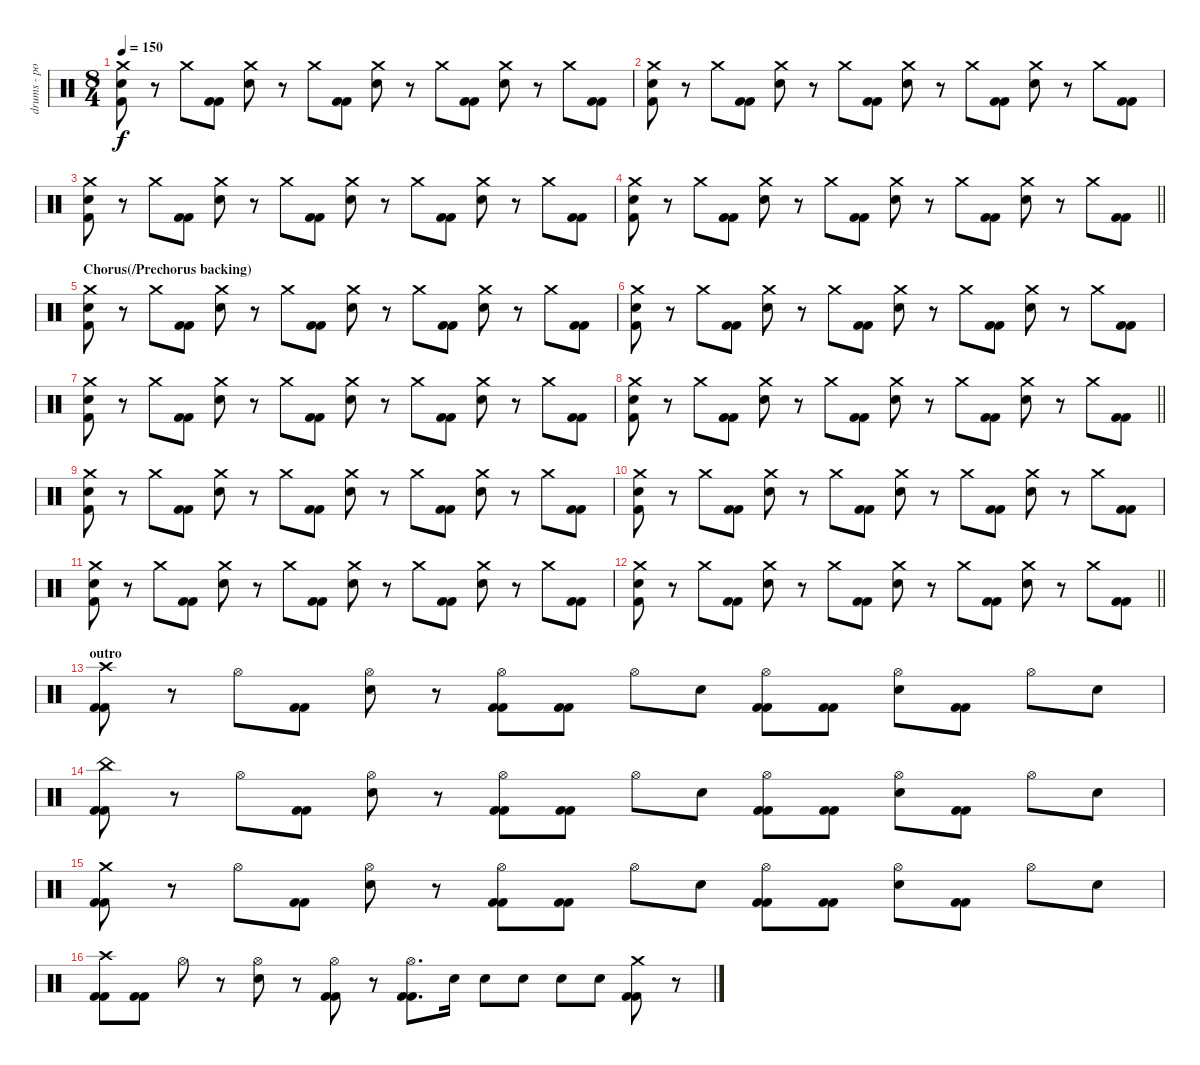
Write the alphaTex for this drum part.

\track ("drums - portnoy" "drums - po") {instrument percussion}
\staff {score}
\articulation defaults
\ts (8 4)
\tempo 150
\clef neutral
\ks c
("Crash medium (hit)" "Electric Snare (hit)" "Kick (hit) 2").8{dy f} r.8 "Crash medium (hit)".8 ("Kick (hit) 2" "Kick (hit) 2").8 ("Crash medium (hit)" "Electric Snare (hit)").8 r.8 "Crash medium (hit)".8 ("Kick (hit) 2" "Kick (hit) 2").8 ("Crash medium (hit)" "Electric Snare (hit)").8 r.8 "Crash medium (hit)".8 ("Kick (hit) 2" "Kick (hit) 2").8 ("Crash medium (hit)" "Electric Snare (hit)").8 r.8 "Crash medium (hit)".8 ("Kick (hit) 2" "Kick (hit) 2").8 |
("Crash medium (hit)" "Electric Snare (hit)" "Kick (hit) 2").8 r.8 "Crash medium (hit)".8 ("Kick (hit) 2" "Kick (hit) 2").8 ("Crash medium (hit)" "Electric Snare (hit)").8 r.8 "Crash medium (hit)".8 ("Kick (hit) 2" "Kick (hit) 2").8 ("Crash medium (hit)" "Electric Snare (hit)").8 r.8 "Crash medium (hit)".8 ("Kick (hit) 2" "Kick (hit) 2").8 ("Crash medium (hit)" "Electric Snare (hit)").8 r.8 "Crash medium (hit)".8 ("Kick (hit) 2" "Kick (hit) 2").8 |
("Crash medium (hit)" "Electric Snare (hit)" "Kick (hit) 2").8 r.8 "Crash medium (hit)".8 ("Kick (hit) 2" "Kick (hit) 2").8 ("Crash medium (hit)" "Electric Snare (hit)").8 r.8 "Crash medium (hit)".8 ("Kick (hit) 2" "Kick (hit) 2").8 ("Crash medium (hit)" "Electric Snare (hit)").8 r.8 "Crash medium (hit)".8 ("Kick (hit) 2" "Kick (hit) 2").8 ("Crash medium (hit)" "Electric Snare (hit)").8 r.8 "Crash medium (hit)".8 ("Kick (hit) 2" "Kick (hit) 2").8 |
\barLineRight lightlight
("Crash medium (hit)" "Electric Snare (hit)" "Kick (hit) 2").8 r.8 "Crash medium (hit)".8 ("Kick (hit) 2" "Kick (hit) 2").8 ("Crash medium (hit)" "Electric Snare (hit)").8 r.8 "Crash medium (hit)".8 ("Kick (hit) 2" "Kick (hit) 2").8 ("Crash medium (hit)" "Electric Snare (hit)").8 r.8 "Crash medium (hit)".8 ("Kick (hit) 2" "Kick (hit) 2").8 ("Crash medium (hit)" "Electric Snare (hit)").8 r.8 "Crash medium (hit)".8 ("Kick (hit) 2" "Kick (hit) 2").8 |
\section ("" "Chorus(/Prechorus backing)")
("Crash medium (hit)" "Electric Snare (hit)" "Kick (hit) 2").8 r.8 "Crash medium (hit)".8 ("Kick (hit) 2" "Kick (hit) 2").8 ("Crash medium (hit)" "Electric Snare (hit)").8 r.8 "Crash medium (hit)".8 ("Kick (hit) 2" "Kick (hit) 2").8 ("Crash medium (hit)" "Electric Snare (hit)").8 r.8 "Crash medium (hit)".8 ("Kick (hit) 2" "Kick (hit) 2").8 ("Crash medium (hit)" "Electric Snare (hit)").8 r.8 "Crash medium (hit)".8 ("Kick (hit) 2" "Kick (hit) 2").8 |
("Crash medium (hit)" "Electric Snare (hit)" "Kick (hit) 2").8 r.8 "Crash medium (hit)".8 ("Kick (hit) 2" "Kick (hit) 2").8 ("Crash medium (hit)" "Electric Snare (hit)").8 r.8 "Crash medium (hit)".8 ("Kick (hit) 2" "Kick (hit) 2").8 ("Crash medium (hit)" "Electric Snare (hit)").8 r.8 "Crash medium (hit)".8 ("Kick (hit) 2" "Kick (hit) 2").8 ("Crash medium (hit)" "Electric Snare (hit)").8 r.8 "Crash medium (hit)".8 ("Kick (hit) 2" "Kick (hit) 2").8 |
("Crash medium (hit)" "Electric Snare (hit)" "Kick (hit) 2").8 r.8 "Crash medium (hit)".8 ("Kick (hit) 2" "Kick (hit) 2").8 ("Crash medium (hit)" "Electric Snare (hit)").8 r.8 "Crash medium (hit)".8 ("Kick (hit) 2" "Kick (hit) 2").8 ("Crash medium (hit)" "Electric Snare (hit)").8 r.8 "Crash medium (hit)".8 ("Kick (hit) 2" "Kick (hit) 2").8 ("Crash medium (hit)" "Electric Snare (hit)").8 r.8 "Crash medium (hit)".8 ("Kick (hit) 2" "Kick (hit) 2").8 |
\barLineRight lightlight
("Crash medium (hit)" "Electric Snare (hit)" "Kick (hit) 2").8 r.8 "Crash medium (hit)".8 ("Kick (hit) 2" "Kick (hit) 2").8 ("Crash medium (hit)" "Electric Snare (hit)").8 r.8 "Crash medium (hit)".8 ("Kick (hit) 2" "Kick (hit) 2").8 ("Crash medium (hit)" "Electric Snare (hit)").8 r.8 "Crash medium (hit)".8 ("Kick (hit) 2" "Kick (hit) 2").8 ("Crash medium (hit)" "Electric Snare (hit)").8 r.8 "Crash medium (hit)".8 ("Kick (hit) 2" "Kick (hit) 2").8 |
("Crash medium (hit)" "Electric Snare (hit)" "Kick (hit) 2").8 r.8 "Crash medium (hit)".8 ("Kick (hit) 2" "Kick (hit) 2").8 ("Crash medium (hit)" "Electric Snare (hit)").8 r.8 "Crash medium (hit)".8 ("Kick (hit) 2" "Kick (hit) 2").8 ("Crash medium (hit)" "Electric Snare (hit)").8 r.8 "Crash medium (hit)".8 ("Kick (hit) 2" "Kick (hit) 2").8 ("Crash medium (hit)" "Electric Snare (hit)").8 r.8 "Crash medium (hit)".8 ("Kick (hit) 2" "Kick (hit) 2").8 |
("Crash medium (hit)" "Electric Snare (hit)" "Kick (hit) 2").8 r.8 "Crash medium (hit)".8 ("Kick (hit) 2" "Kick (hit) 2").8 ("Crash medium (hit)" "Electric Snare (hit)").8 r.8 "Crash medium (hit)".8 ("Kick (hit) 2" "Kick (hit) 2").8 ("Crash medium (hit)" "Electric Snare (hit)").8 r.8 "Crash medium (hit)".8 ("Kick (hit) 2" "Kick (hit) 2").8 ("Crash medium (hit)" "Electric Snare (hit)").8 r.8 "Crash medium (hit)".8 ("Kick (hit) 2" "Kick (hit) 2").8 |
("Crash medium (hit)" "Electric Snare (hit)" "Kick (hit) 2").8 r.8 "Crash medium (hit)".8 ("Kick (hit) 2" "Kick (hit) 2").8 ("Crash medium (hit)" "Electric Snare (hit)").8 r.8 "Crash medium (hit)".8 ("Kick (hit) 2" "Kick (hit) 2").8 ("Crash medium (hit)" "Electric Snare (hit)").8 r.8 "Crash medium (hit)".8 ("Kick (hit) 2" "Kick (hit) 2").8 ("Crash medium (hit)" "Electric Snare (hit)").8 r.8 "Crash medium (hit)".8 ("Kick (hit) 2" "Kick (hit) 2").8 |
\barLineRight lightlight
("Crash medium (hit)" "Electric Snare (hit)" "Kick (hit) 2").8 r.8 "Crash medium (hit)".8 ("Kick (hit) 2" "Kick (hit) 2").8 ("Crash medium (hit)" "Electric Snare (hit)").8 r.8 "Crash medium (hit)".8 ("Kick (hit) 2" "Kick (hit) 2").8 ("Crash medium (hit)" "Electric Snare (hit)").8 r.8 "Crash medium (hit)".8 ("Kick (hit) 2" "Kick (hit) 2").8 ("Crash medium (hit)" "Electric Snare (hit)").8 r.8 "Crash medium (hit)".8 ("Kick (hit) 2" "Kick (hit) 2").8 |
\section ("" "outro")
("Crash high (hit)" "Kick (hit) 2" "Kick (hit) 2").8 r.8 "Hi-Hat (open)".8 ("Kick (hit) 2" "Kick (hit) 2").8 ("Hi-Hat (open)" "Electric Snare (hit)").8 r.8 ("Hi-Hat (open)" "Kick (hit) 2" "Kick (hit) 2").8 ("Kick (hit) 2" "Kick (hit) 2").8 "Hi-Hat (open)".8 "Electric Snare (hit)".8 ("Hi-Hat (open)" "Kick (hit) 2" "Kick (hit) 2").8 ("Kick (hit) 2" "Kick (hit) 2").8 ("Hi-Hat (open)" "Electric Snare (hit)").8 ("Kick (hit) 2" "Kick (hit) 2").8 "Hi-Hat (open)".8 "Electric Snare (hit)".8 |
("China (hit)" "Kick (hit) 2" "Kick (hit) 2").8 r.8 "Hi-Hat (open)".8 ("Kick (hit) 2" "Kick (hit) 2").8 ("Hi-Hat (open)" "Electric Snare (hit)").8 r.8 ("Hi-Hat (open)" "Kick (hit) 2" "Kick (hit) 2").8 ("Kick (hit) 2" "Kick (hit) 2").8 "Hi-Hat (open)".8 "Electric Snare (hit)".8 ("Hi-Hat (open)" "Kick (hit) 2" "Kick (hit) 2").8 ("Kick (hit) 2" "Kick (hit) 2").8 ("Hi-Hat (open)" "Electric Snare (hit)").8 ("Kick (hit) 2" "Kick (hit) 2").8 "Hi-Hat (open)".8 "Electric Snare (hit)".8 |
("Crash medium (hit)" "Kick (hit) 2" "Kick (hit) 2").8 r.8 "Hi-Hat (open)".8 ("Kick (hit) 2" "Kick (hit) 2").8 ("Hi-Hat (open)" "Electric Snare (hit)").8 r.8 ("Hi-Hat (open)" "Kick (hit) 2" "Kick (hit) 2").8 ("Kick (hit) 2" "Kick (hit) 2").8 "Hi-Hat (open)".8 "Electric Snare (hit)".8 ("Hi-Hat (open)" "Kick (hit) 2" "Kick (hit) 2").8 ("Kick (hit) 2" "Kick (hit) 2").8 ("Hi-Hat (open)" "Electric Snare (hit)").8 ("Kick (hit) 2" "Kick (hit) 2").8 "Hi-Hat (open)".8 "Electric Snare (hit)".8 |
("Crash high (hit)" "Kick (hit) 2" "Kick (hit) 2").8 ("Kick (hit) 2" "Kick (hit) 2").8 "Hi-Hat (open)".8 r.8 ("Hi-Hat (open)" "Electric Snare (hit)").8 r.8 ("Hi-Hat (open)" "Kick (hit) 2" "Kick (hit) 2").8 r.8 ("Hi-Hat (open)" "Kick (hit) 2" "Kick (hit) 2").8{d} "Electric Snare (hit)".16 "Electric Snare (hit)".8 "Electric Snare (hit)".8 "Electric Snare (hit)".8 "Electric Snare (hit)".8 ("Crash medium (hit)" "Kick (hit) 2" "Kick (hit) 2").8 r.8
